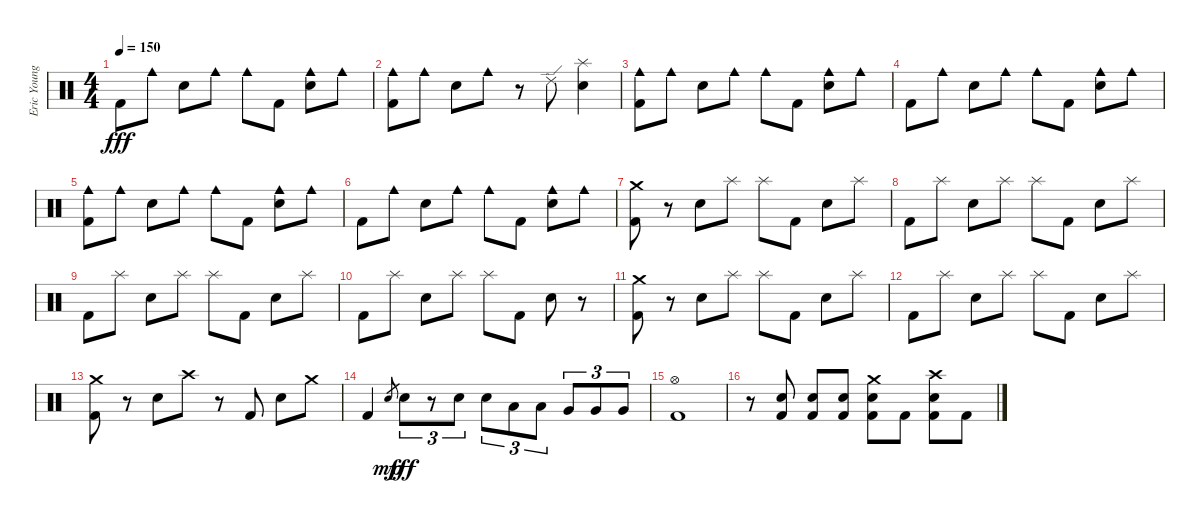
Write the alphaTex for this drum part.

\track ("Eric Young" "Eric Young") {instrument percussion}
\staff {score}
\articulation defaults
\ts (4 4)
\tempo 150
\clef neutral
\ks c "Kick (hit) 2".8{dy fff} "Cowbell medium (hit)".8 "Electric Snare (hit)".8 "Cowbell medium (hit)".8 "Cowbell medium (hit)".8 "Kick (hit) 2".8
("Cowbell medium (hit)" "Electric Snare (hit)").8 "Cowbell medium (hit)".8 |
("Cowbell medium (hit)" "Kick (hit) 2").8 "Cowbell medium (hit)".8 "Electric Snare (hit)".8 "Cowbell medium (hit)".8 r.8 "Ride (edge) 2".8 ("Splash (hit)" "Electric Snare (hit)").4 |
("Cowbell medium (hit)" "Kick (hit) 2").8 "Cowbell medium (hit)".8 "Electric Snare (hit)".8 "Cowbell medium (hit)".8 "Cowbell medium (hit)".8 "Kick (hit) 2".8 ("Cowbell medium (hit)" "Electric Snare (hit)").8 "Cowbell medium (hit)".8 |
"Kick (hit) 2".8 "Cowbell medium (hit)".8 "Electric Snare (hit)".8 "Cowbell medium (hit)".8 "Cowbell medium (hit)".8 "Kick (hit) 2".8 ("Cowbell medium (hit)" "Electric Snare (hit)").8 "Cowbell medium (hit)".8 |
("Cowbell medium (hit)" "Kick (hit) 2").8 "Cowbell medium (hit)".8 "Electric Snare (hit)".8 "Cowbell medium (hit)".8 "Cowbell medium (hit)".8 "Kick (hit) 2".8 ("Cowbell medium (hit)" "Electric Snare (hit)").8 "Cowbell medium (hit)".8 |
"Kick (hit) 2".8 "Cowbell medium (hit)".8 "Electric Snare (hit)".8 "Cowbell medium (hit)".8 "Cowbell medium (hit)".8 "Kick (hit) 2".8 ("Cowbell medium (hit)" "Electric Snare (hit)").8 "Cowbell medium (hit)".8 |
("Crash medium (hit)" "Kick (hit) 2").8 r.8 "Electric Snare (hit)".8 "Splash (hit)".8 "Splash (hit)".8 "Kick (hit) 2".8 "Electric Snare (hit)".8 "Splash (hit)".8 |
"Kick (hit) 2".8 "Splash (hit)".8 "Electric Snare (hit)".8 "Splash (hit)".8 "Splash (hit)".8 "Kick (hit) 2".8 "Electric Snare (hit)".8 "Splash (hit)".8 |
"Kick (hit) 2".8 "Splash (hit)".8 "Electric Snare (hit)".8 "Splash (hit)".8 "Splash (hit)".8 "Kick (hit) 2".8 "Electric Snare (hit)".8 "Splash (hit)".8 |
"Kick (hit) 2".8 "Splash (hit)".8 "Electric Snare (hit)".8 "Splash (hit)".8 "Splash (hit)".8 "Kick (hit) 2".8 "Electric Snare (hit)".8 r.8 |
("Crash medium (hit)" "Kick (hit) 2").8 r.8 "Electric Snare (hit)".8 "Splash (hit)".8 "Splash (hit)".8 "Kick (hit) 2".8 "Electric Snare (hit)".8 "Splash (hit)".8 |
"Kick (hit) 2".8 "Splash (hit)".8 "Electric Snare (hit)".8 "Splash (hit)".8 "Splash (hit)".8 "Kick (hit) 2".8 "Electric Snare (hit)".8 "Splash (hit)".8 |
("Crash medium (hit)" "Kick (hit) 2").8 r.8 "Electric Snare (hit)".8 "Crash high (hit)".8 r.8 "Kick (hit) 2".8 "Electric Snare (hit)".8 "Crash medium (hit)".8 |
"Kick (hit) 2".4 "Electric Snare (hit)".8{gr dy mp} "Electric Snare (hit)".8{tu (3 2) dy fff} r.8{tu (3 2)} "Electric Snare (hit)".8{tu (3 2)} "Electric Snare (hit)".8{tu (3 2)} "Low Tom (hit)".8{tu (3 2)} "Low Tom (hit)".8{tu (3 2)} "Very Low Tom (hit)".8{tu (3 2)} "Very Low Tom (hit)".8{tu (3 2)} "Very Low Tom (hit)".8{tu (3 2)} |
("Hi-Hat (open)" "Kick (hit) 2").1 |
r.8 ("Electric Snare (hit)" "Kick (hit) 2").8 ("Electric Snare (hit)" "Kick (hit) 2").8 ("Electric Snare (hit)" "Kick (hit) 2").8 ("Crash medium (hit)" "Electric Snare (hit)" "Kick (hit) 2").8 "Kick (hit) 2".8 ("Crash high (hit)" "Electric Snare (hit)" "Kick (hit) 2").8 "Kick (hit) 2".8
